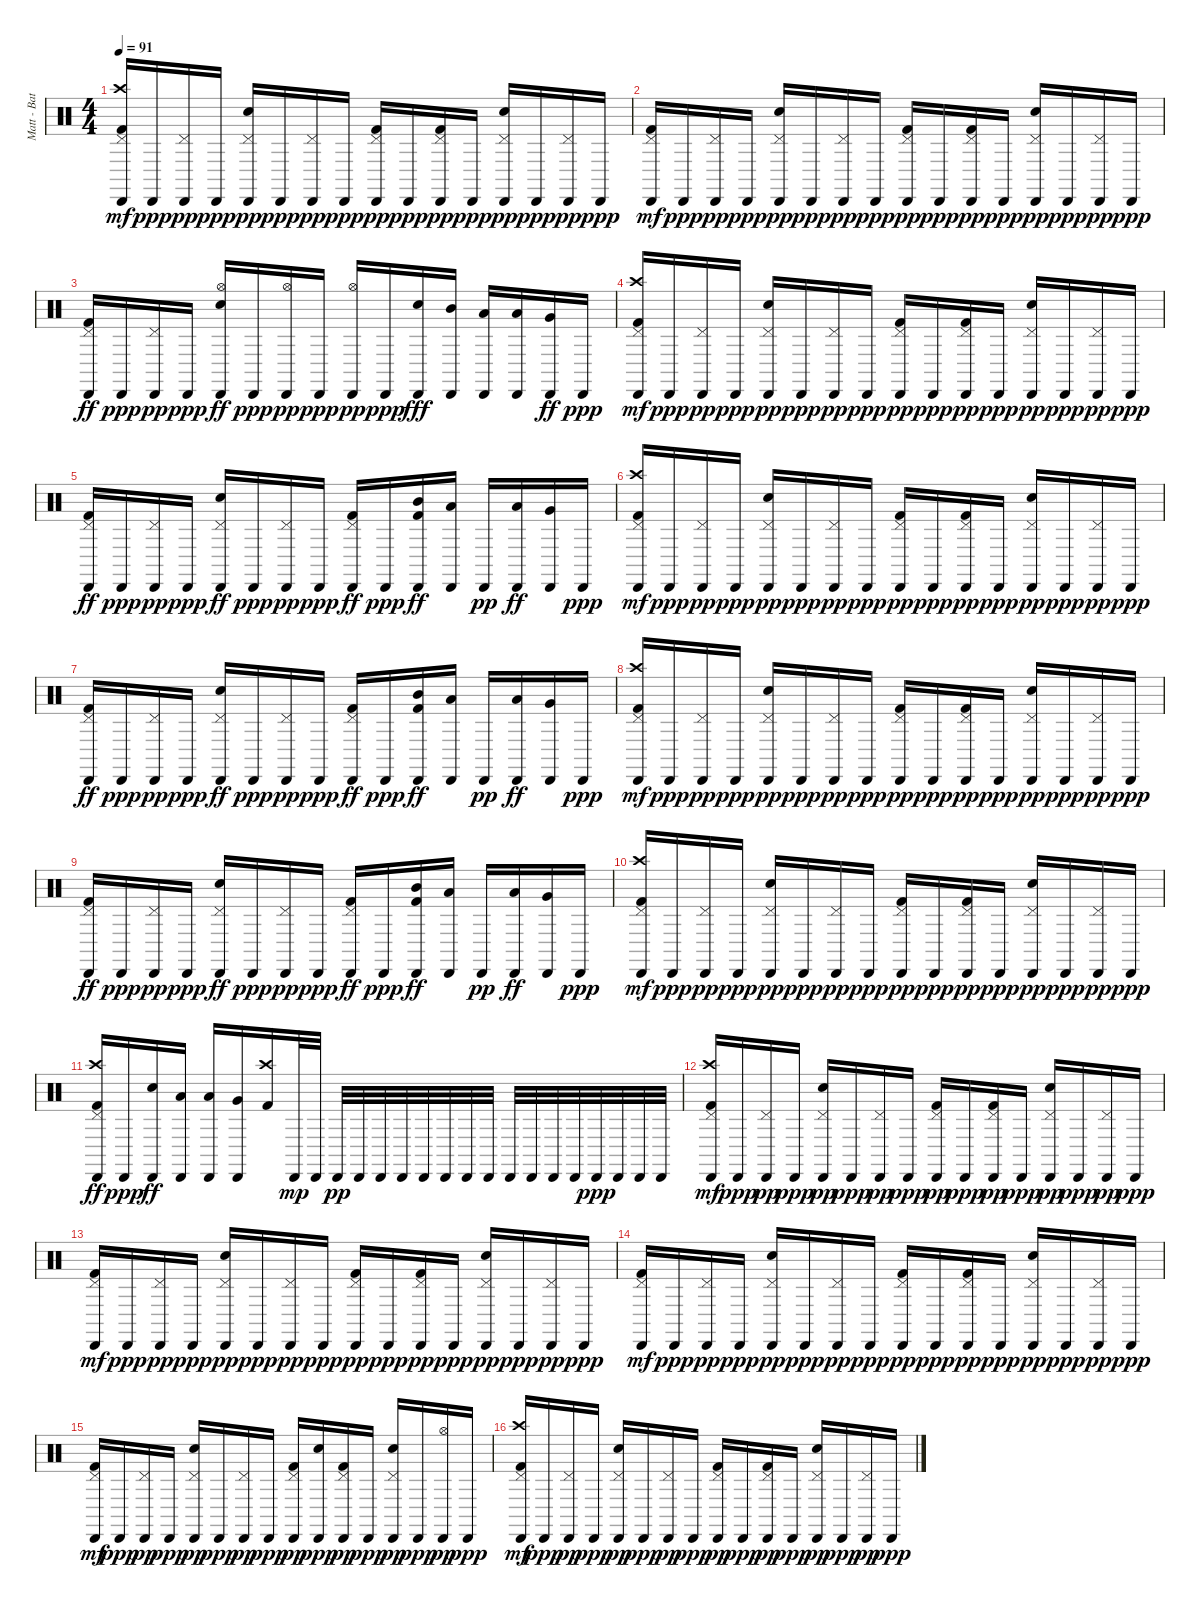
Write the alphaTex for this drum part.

\track ("Matt - Batería" "Matt - Bat") {instrument percussion}
\staff {score}
\articulation defaults
\ts (4 4)
\tempo 91
\clef neutral
\ks c
("Cabasa (hit)" "Crash high (hit)" "Pedal Hi-Hat (hit)" "Kick (hit) 2").16{dy mf} "Cabasa (hit)".16{dy ppp} ("Cabasa (hit)" "Pedal Hi-Hat (hit)").16{dy pp} "Cabasa (hit)".16{dy ppp} ("Cabasa (hit)" "Pedal Hi-Hat (hit)" "Snare (hit) 2").16{dy pp} "Cabasa (hit)".16{dy ppp} ("Cabasa (hit)" "Pedal Hi-Hat (hit)").16{dy pp} "Cabasa (hit)".16{dy ppp} ("Cabasa (hit)" "Pedal Hi-Hat (hit)" "Kick (hit) 2").16{dy pp} "Cabasa (hit)".16{dy ppp} ("Cabasa (hit)" "Pedal Hi-Hat (hit)" "Kick (hit) 2").16{dy pp} "Cabasa (hit)".16{dy ppp} ("Cabasa (hit)" "Pedal Hi-Hat (hit)" "Snare (hit) 2").16{dy pp} "Cabasa (hit)".16{dy ppp} ("Cabasa (hit)" "Pedal Hi-Hat (hit)").16{dy pp} "Cabasa (hit)".16{dy ppp} |
("Cabasa (hit)" "Pedal Hi-Hat (hit)" "Kick (hit) 2").16{dy mf} "Cabasa (hit)".16{dy ppp} ("Cabasa (hit)" "Pedal Hi-Hat (hit)").16{dy pp} "Cabasa (hit)".16{dy ppp} ("Cabasa (hit)" "Pedal Hi-Hat (hit)" "Snare (hit) 2").16{dy pp} "Cabasa (hit)".16{dy ppp} ("Cabasa (hit)" "Pedal Hi-Hat (hit)").16{dy pp} "Cabasa (hit)".16{dy ppp} ("Cabasa (hit)" "Pedal Hi-Hat (hit)" "Kick (hit) 2").16{dy pp} "Cabasa (hit)".16{dy ppp} ("Cabasa (hit)" "Pedal Hi-Hat (hit)" "Kick (hit) 2").16{dy pp} "Cabasa (hit)".16{dy ppp} ("Cabasa (hit)" "Pedal Hi-Hat (hit)" "Snare (hit) 2").16{dy pp} "Cabasa (hit)".16{dy ppp} ("Cabasa (hit)" "Pedal Hi-Hat (hit)").16{dy pp} "Cabasa (hit)".16{dy ppp} |
("Cabasa (hit)" "Pedal Hi-Hat (hit)" "Kick (hit) 2").16{dy ff} "Cabasa (hit)".16{dy ppp} ("Cabasa (hit)" "Pedal Hi-Hat (hit)").16{dy pp} "Cabasa (hit)".16{dy ppp} ("Cabasa (hit)" "Hi-Hat (open)" "Snare (hit) 2").16{dy ff} "Cabasa (hit)".16{dy ppp} ("Cabasa (hit)" "Hi-Hat (open)").16{dy pp} "Cabasa (hit)".16{dy ppp} ("Cabasa (hit)" "Hi-Hat (open)").16{dy pp} "Cabasa (hit)".16{dy ppp} ("Cabasa (hit)" "Snare (hit) 2").16{dy fff} ("Cabasa (hit)" "Mid Tom (hit)").16 ("Cabasa (hit)" "Low Tom (hit)").16 ("Cabasa (hit)" "Low Tom (hit)").16 ("Cabasa (hit)" "Very Low Tom (hit)").16{dy ff} "Cabasa (hit)".16{dy ppp} |
("Cabasa (hit)" "Crash high (hit)" "Pedal Hi-Hat (hit)" "Kick (hit) 2").16{dy mf} "Cabasa (hit)".16{dy ppp} ("Cabasa (hit)" "Pedal Hi-Hat (hit)").16{dy pp} "Cabasa (hit)".16{dy ppp} ("Cabasa (hit)" "Pedal Hi-Hat (hit)" "Snare (hit) 2").16{dy pp} "Cabasa (hit)".16{dy ppp} ("Cabasa (hit)" "Pedal Hi-Hat (hit)").16{dy pp} "Cabasa (hit)".16{dy ppp} ("Cabasa (hit)" "Pedal Hi-Hat (hit)" "Kick (hit) 2").16{dy pp} "Cabasa (hit)".16{dy ppp} ("Cabasa (hit)" "Pedal Hi-Hat (hit)" "Kick (hit) 2").16{dy pp} "Cabasa (hit)".16{dy ppp} ("Cabasa (hit)" "Pedal Hi-Hat (hit)" "Snare (hit) 2").16{dy pp} "Cabasa (hit)".16{dy ppp} ("Cabasa (hit)" "Pedal Hi-Hat (hit)").16{dy pp} "Cabasa (hit)".16{dy ppp} |
("Cabasa (hit)" "Pedal Hi-Hat (hit)" "Kick (hit) 2").16{dy ff} "Cabasa (hit)".16{dy ppp} ("Cabasa (hit)" "Pedal Hi-Hat (hit)").16{dy pp} "Cabasa (hit)".16{dy ppp} ("Cabasa (hit)" "Pedal Hi-Hat (hit)" "Snare (hit) 2").16{dy ff} "Cabasa (hit)".16{dy ppp} ("Cabasa (hit)" "Pedal Hi-Hat (hit)").16{dy pp} "Cabasa (hit)".16{dy ppp} ("Cabasa (hit)" "Pedal Hi-Hat (hit)" "Kick (hit) 2").16{dy ff} "Cabasa (hit)".16{dy ppp} ("Cabasa (hit)" "Mid Tom (hit)" "Kick (hit) 2").16{dy ff} ("Cabasa (hit)" "Low Tom (hit)").16 "Cabasa (hit)".16{dy pp} ("Cabasa (hit)" "Low Tom (hit)").16{dy ff} ("Cabasa (hit)" "Very Low Tom (hit)").16 "Cabasa (hit)".16{dy ppp} |
("Cabasa (hit)" "Crash high (hit)" "Pedal Hi-Hat (hit)" "Kick (hit) 2").16{dy mf} "Cabasa (hit)".16{dy ppp} ("Cabasa (hit)" "Pedal Hi-Hat (hit)").16{dy pp} "Cabasa (hit)".16{dy ppp} ("Cabasa (hit)" "Pedal Hi-Hat (hit)" "Snare (hit) 2").16{dy pp} "Cabasa (hit)".16{dy ppp} ("Cabasa (hit)" "Pedal Hi-Hat (hit)").16{dy pp} "Cabasa (hit)".16{dy ppp} ("Cabasa (hit)" "Pedal Hi-Hat (hit)" "Kick (hit) 2").16{dy pp} "Cabasa (hit)".16{dy ppp} ("Cabasa (hit)" "Pedal Hi-Hat (hit)" "Kick (hit) 2").16{dy pp} "Cabasa (hit)".16{dy ppp} ("Cabasa (hit)" "Pedal Hi-Hat (hit)" "Snare (hit) 2").16{dy pp} "Cabasa (hit)".16{dy ppp} ("Cabasa (hit)" "Pedal Hi-Hat (hit)").16{dy pp} "Cabasa (hit)".16{dy ppp} |
("Cabasa (hit)" "Pedal Hi-Hat (hit)" "Kick (hit) 2").16{dy ff} "Cabasa (hit)".16{dy ppp} ("Cabasa (hit)" "Pedal Hi-Hat (hit)").16{dy pp} "Cabasa (hit)".16{dy ppp} ("Cabasa (hit)" "Pedal Hi-Hat (hit)" "Snare (hit) 2").16{dy ff} "Cabasa (hit)".16{dy ppp} ("Cabasa (hit)" "Pedal Hi-Hat (hit)").16{dy pp} "Cabasa (hit)".16{dy ppp} ("Cabasa (hit)" "Pedal Hi-Hat (hit)" "Kick (hit) 2").16{dy ff} "Cabasa (hit)".16{dy ppp} ("Cabasa (hit)" "Mid Tom (hit)" "Kick (hit) 2").16{dy ff} ("Cabasa (hit)" "Low Tom (hit)").16 "Cabasa (hit)".16{dy pp} ("Cabasa (hit)" "Low Tom (hit)").16{dy ff} ("Cabasa (hit)" "Very Low Tom (hit)").16 "Cabasa (hit)".16{dy ppp} |
("Cabasa (hit)" "Crash high (hit)" "Pedal Hi-Hat (hit)" "Kick (hit) 2").16{dy mf} "Cabasa (hit)".16{dy ppp} ("Cabasa (hit)" "Pedal Hi-Hat (hit)").16{dy pp} "Cabasa (hit)".16{dy ppp} ("Cabasa (hit)" "Pedal Hi-Hat (hit)" "Snare (hit) 2").16{dy pp} "Cabasa (hit)".16{dy ppp} ("Cabasa (hit)" "Pedal Hi-Hat (hit)").16{dy pp} "Cabasa (hit)".16{dy ppp} ("Cabasa (hit)" "Pedal Hi-Hat (hit)" "Kick (hit) 2").16{dy pp} "Cabasa (hit)".16{dy ppp} ("Cabasa (hit)" "Pedal Hi-Hat (hit)" "Kick (hit) 2").16{dy pp} "Cabasa (hit)".16{dy ppp} ("Cabasa (hit)" "Pedal Hi-Hat (hit)" "Snare (hit) 2").16{dy pp} "Cabasa (hit)".16{dy ppp} ("Cabasa (hit)" "Pedal Hi-Hat (hit)").16{dy pp} "Cabasa (hit)".16{dy ppp} |
("Cabasa (hit)" "Pedal Hi-Hat (hit)" "Kick (hit) 2").16{dy ff} "Cabasa (hit)".16{dy ppp} ("Cabasa (hit)" "Pedal Hi-Hat (hit)").16{dy pp} "Cabasa (hit)".16{dy ppp} ("Cabasa (hit)" "Pedal Hi-Hat (hit)" "Snare (hit) 2").16{dy ff} "Cabasa (hit)".16{dy ppp} ("Cabasa (hit)" "Pedal Hi-Hat (hit)").16{dy pp} "Cabasa (hit)".16{dy ppp} ("Cabasa (hit)" "Pedal Hi-Hat (hit)" "Kick (hit) 2").16{dy ff} "Cabasa (hit)".16{dy ppp} ("Cabasa (hit)" "Mid Tom (hit)" "Kick (hit) 2").16{dy ff} ("Cabasa (hit)" "Low Tom (hit)").16 "Cabasa (hit)".16{dy pp} ("Cabasa (hit)" "Low Tom (hit)").16{dy ff} ("Cabasa (hit)" "Very Low Tom (hit)").16 "Cabasa (hit)".16{dy ppp} |
("Cabasa (hit)" "Crash high (hit)" "Pedal Hi-Hat (hit)" "Kick (hit) 2").16{dy mf} "Cabasa (hit)".16{dy ppp} ("Cabasa (hit)" "Pedal Hi-Hat (hit)").16{dy pp} "Cabasa (hit)".16{dy ppp} ("Cabasa (hit)" "Pedal Hi-Hat (hit)" "Snare (hit) 2").16{dy pp} "Cabasa (hit)".16{dy ppp} ("Cabasa (hit)" "Pedal Hi-Hat (hit)").16{dy pp} "Cabasa (hit)".16{dy ppp} ("Cabasa (hit)" "Pedal Hi-Hat (hit)" "Kick (hit) 2").16{dy pp} "Cabasa (hit)".16{dy ppp} ("Cabasa (hit)" "Pedal Hi-Hat (hit)" "Kick (hit) 2").16{dy pp} "Cabasa (hit)".16{dy ppp} ("Cabasa (hit)" "Pedal Hi-Hat (hit)" "Snare (hit) 2").16{dy pp} "Cabasa (hit)".16{dy ppp} ("Cabasa (hit)" "Pedal Hi-Hat (hit)").16{dy pp} "Cabasa (hit)".16{dy ppp} |
("Cabasa (hit)" "Crash high (hit)" "Pedal Hi-Hat (hit)" "Kick (hit) 2").16{dy ff} "Cabasa (hit)".16{dy ppp} ("Cabasa (hit)" "Snare (hit) 2").16{dy ff} ("Cabasa (hit)" "Low Tom (hit)").16 ("Cabasa (hit)" "Low Tom (hit)").16 ("Cabasa (hit)" "Very Low Tom (hit)").16 ("Crash high (hit)" "Kick (hit) 2").16 "Cabasa (hit)".32{dy mp} "Cabasa (hit)".32 "Cabasa (hit)".32{dy pp} "Cabasa (hit)".32 "Cabasa (hit)".32 "Cabasa (hit)".32 "Cabasa (hit)".32 "Cabasa (hit)".32 "Cabasa (hit)".32 "Cabasa (hit)".32 "Cabasa (hit)".32 "Cabasa (hit)".32 "Cabasa (hit)".32 "Cabasa (hit)".32 "Cabasa (hit)".32{dy ppp} "Cabasa (hit)".32 "Cabasa (hit)".32 "Cabasa (hit)".32 |
("Cabasa (hit)" "Crash high (hit)" "Pedal Hi-Hat (hit)" "Kick (hit) 2").16{dy mf} "Cabasa (hit)".16{dy ppp} ("Cabasa (hit)" "Pedal Hi-Hat (hit)").16{dy pp} "Cabasa (hit)".16{dy ppp} ("Cabasa (hit)" "Pedal Hi-Hat (hit)" "Snare (hit) 2").16{dy pp} "Cabasa (hit)".16{dy ppp} ("Cabasa (hit)" "Pedal Hi-Hat (hit)").16{dy pp} "Cabasa (hit)".16{dy ppp} ("Cabasa (hit)" "Pedal Hi-Hat (hit)" "Kick (hit) 2").16{dy pp} "Cabasa (hit)".16{dy ppp} ("Cabasa (hit)" "Pedal Hi-Hat (hit)" "Kick (hit) 2").16{dy pp} "Cabasa (hit)".16{dy ppp} ("Cabasa (hit)" "Pedal Hi-Hat (hit)" "Snare (hit) 2").16{dy pp} "Cabasa (hit)".16{dy ppp} ("Cabasa (hit)" "Pedal Hi-Hat (hit)").16{dy pp} "Cabasa (hit)".16{dy ppp} |
("Cabasa (hit)" "Pedal Hi-Hat (hit)" "Kick (hit) 2").16{dy mf} "Cabasa (hit)".16{dy ppp} ("Cabasa (hit)" "Pedal Hi-Hat (hit)").16{dy pp} "Cabasa (hit)".16{dy ppp} ("Cabasa (hit)" "Pedal Hi-Hat (hit)" "Snare (hit) 2").16{dy pp} "Cabasa (hit)".16{dy ppp} ("Cabasa (hit)" "Pedal Hi-Hat (hit)").16{dy pp} "Cabasa (hit)".16{dy ppp} ("Cabasa (hit)" "Pedal Hi-Hat (hit)" "Kick (hit) 2").16{dy pp} "Cabasa (hit)".16{dy ppp} ("Cabasa (hit)" "Pedal Hi-Hat (hit)" "Kick (hit) 2").16{dy pp} "Cabasa (hit)".16{dy ppp} ("Cabasa (hit)" "Pedal Hi-Hat (hit)" "Snare (hit) 2").16{dy pp} "Cabasa (hit)".16{dy ppp} ("Cabasa (hit)" "Pedal Hi-Hat (hit)").16{dy pp} "Cabasa (hit)".16{dy ppp} |
("Cabasa (hit)" "Pedal Hi-Hat (hit)" "Kick (hit) 2").16{dy mf} "Cabasa (hit)".16{dy ppp} ("Cabasa (hit)" "Pedal Hi-Hat (hit)").16{dy pp} "Cabasa (hit)".16{dy ppp} ("Cabasa (hit)" "Pedal Hi-Hat (hit)" "Snare (hit) 2").16{dy pp} "Cabasa (hit)".16{dy ppp} ("Cabasa (hit)" "Pedal Hi-Hat (hit)").16{dy pp} "Cabasa (hit)".16{dy ppp} ("Cabasa (hit)" "Pedal Hi-Hat (hit)" "Kick (hit) 2").16{dy pp} "Cabasa (hit)".16{dy ppp} ("Cabasa (hit)" "Pedal Hi-Hat (hit)" "Kick (hit) 2").16{dy pp} "Cabasa (hit)".16{dy ppp} ("Cabasa (hit)" "Pedal Hi-Hat (hit)" "Snare (hit) 2").16{dy pp} "Cabasa (hit)".16{dy ppp} ("Cabasa (hit)" "Pedal Hi-Hat (hit)").16{dy pp} "Cabasa (hit)".16{dy ppp} |
("Cabasa (hit)" "Pedal Hi-Hat (hit)" "Kick (hit) 2").16{dy mf} "Cabasa (hit)".16{dy ppp} ("Cabasa (hit)" "Pedal Hi-Hat (hit)").16{dy pp} "Cabasa (hit)".16{dy ppp} ("Cabasa (hit)" "Pedal Hi-Hat (hit)" "Snare (hit) 2").16{dy pp} "Cabasa (hit)".16{dy ppp} ("Cabasa (hit)" "Pedal Hi-Hat (hit)").16{dy pp} "Cabasa (hit)".16{dy ppp} ("Cabasa (hit)" "Pedal Hi-Hat (hit)" "Kick (hit) 2").16{dy pp} ("Cabasa (hit)" "Snare (hit) 2").16{dy ppp} ("Cabasa (hit)" "Pedal Hi-Hat (hit)" "Kick (hit) 2").16{dy pp} "Cabasa (hit)".16{dy ppp} ("Cabasa (hit)" "Pedal Hi-Hat (hit)" "Snare (hit) 2").16{dy pp} "Cabasa (hit)".16{dy ppp} ("Cabasa (hit)" "Hi-Hat (open)").16{dy pp} "Cabasa (hit)".16{dy ppp} |
("Cabasa (hit)" "Crash high (hit)" "Pedal Hi-Hat (hit)" "Kick (hit) 2").16{dy mf} "Cabasa (hit)".16{dy ppp} ("Cabasa (hit)" "Pedal Hi-Hat (hit)").16{dy pp} "Cabasa (hit)".16{dy ppp} ("Cabasa (hit)" "Pedal Hi-Hat (hit)" "Snare (hit) 2").16{dy pp} "Cabasa (hit)".16{dy ppp} ("Cabasa (hit)" "Pedal Hi-Hat (hit)").16{dy pp} "Cabasa (hit)".16{dy ppp} ("Cabasa (hit)" "Pedal Hi-Hat (hit)" "Kick (hit) 2").16{dy pp} "Cabasa (hit)".16{dy ppp} ("Cabasa (hit)" "Pedal Hi-Hat (hit)" "Kick (hit) 2").16{dy pp} "Cabasa (hit)".16{dy ppp} ("Cabasa (hit)" "Pedal Hi-Hat (hit)" "Snare (hit) 2").16{dy pp} "Cabasa (hit)".16{dy ppp} ("Cabasa (hit)" "Pedal Hi-Hat (hit)").16{dy pp} "Cabasa (hit)".16{dy ppp}
